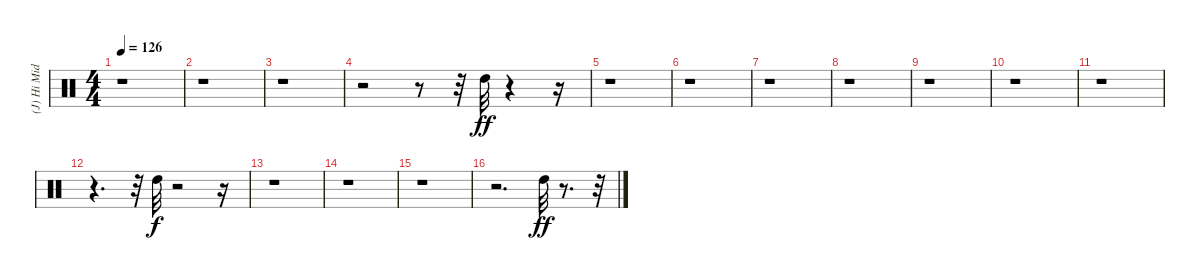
\track ("(J) Hi Mid Tom" "(J) Hi Mid") {instrument percussion}
\staff {score}
\articulation defaults
\ts (4 4)
\tempo 126
\clef neutral
\ks c
r.1{dy ff} |
r.1 |
r.1 |
r.2 r.8 r.32 "High Tom (hit)".32 r.4 r.16 |
r.1 |
r.1 |
r.1 |
r.1 |
r.1 |
r.1 |
r.1 |
r.4{d} r.32 "High Tom (hit)".32{dy f} r.2 r.16 |
r.1 |
r.1 |
r.1 |
r.2{d} "High Tom (hit)".32{dy ff} r.8{d} r.32
